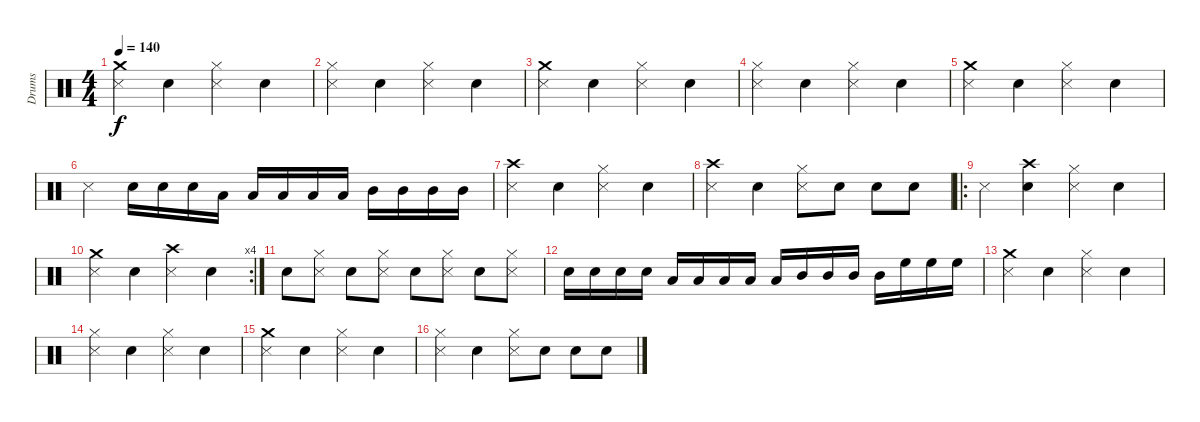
\track ("Drums" "Drums") {instrument percussion}
\staff {score}
\articulation defaults
\ts (4 4)
\tempo 140
\clef neutral
\ks c
("Crash medium (hit)" "Metronome (hit)").4{dy f} "Electric Snare (hit)".4 ("Hi-Hat (closed)" "Metronome (hit)").4 "Electric Snare (hit)".4 |
("Hi-Hat (closed)" "Metronome (hit)").4 "Electric Snare (hit)".4 ("Hi-Hat (closed)" "Metronome (hit)").4 "Electric Snare (hit)".4 |
("Crash medium (hit)" "Metronome (hit)").4 "Electric Snare (hit)".4 ("Hi-Hat (closed)" "Metronome (hit)").4 "Electric Snare (hit)".4 |
("Hi-Hat (closed)" "Metronome (hit)").4 "Electric Snare (hit)".4 ("Hi-Hat (closed)" "Metronome (hit)").4 "Electric Snare (hit)".4 |
("Crash medium (hit)" "Metronome (hit)").4 "Electric Snare (hit)".4 ("Hi-Hat (closed)" "Metronome (hit)").4 "Electric Snare (hit)".4 |
"Metronome (hit)".4 "Electric Snare (hit)".16 "Electric Snare (hit)".16 "Electric Snare (hit)".16 "Low Tom (hit)".16 "Low Tom (hit)".16 "Low Tom (hit)".16 "Low Tom (hit)".16 "Low Tom (hit)".16 "Mid Tom (hit)".16 "Mid Tom (hit)".16 "Mid Tom (hit)".16 "Mid Tom (hit)".16 |
("Crash high (hit)" "Metronome (hit)").4 "Electric Snare (hit)".4 ("Hi-Hat (closed)" "Metronome (hit)").4 "Electric Snare (hit)".4 |
("Crash high (hit)" "Metronome (hit)").4 "Electric Snare (hit)".4 ("Hi-Hat (closed)" "Metronome (hit)").8 "Electric Snare (hit)".8 "Electric Snare (hit)".8 "Electric Snare (hit)".8 |
\ro "Metronome (hit)".4
("Crash high (hit)" "Electric Snare (hit)").4 ("Hi-Hat (closed)" "Metronome (hit)").4 "Electric Snare (hit)".4 |
\rc 4
("Crash medium (hit)" "Metronome (hit)").4 "Electric Snare (hit)".4 ("Crash high (hit)" "Metronome (hit)").4 "Electric Snare (hit)".4 |
"Electric Snare (hit)".8 ("Hi-Hat (closed)" "Metronome (hit)").8 "Electric Snare (hit)".8 ("Hi-Hat (closed)" "Metronome (hit)").8 "Electric Snare (hit)".8 ("Hi-Hat (closed)" "Metronome (hit)").8 "Electric Snare (hit)".8 ("Hi-Hat (closed)" "Metronome (hit)").8 |
"Electric Snare (hit)".16 "Electric Snare (hit)".16 "Electric Snare (hit)".16 "Electric Snare (hit)".16 "Low Tom (hit)".16 "Low Tom (hit)".16 "Low Tom (hit)".16 "Low Tom (hit)".16 "Low Tom (hit)".16 "Mid Tom (hit)".16 "Mid Tom (hit)".16 "Mid Tom (hit)".16 "Mid Tom (hit)".16 "High Floor Tom (hit)".16 "High Floor Tom (hit)".16 "High Floor Tom (hit)".16 |
("Crash medium (hit)" "Metronome (hit)").4 "Electric Snare (hit)".4 ("Hi-Hat (closed)" "Metronome (hit)").4 "Electric Snare (hit)".4 |
("Hi-Hat (closed)" "Metronome (hit)").4 "Electric Snare (hit)".4 ("Hi-Hat (closed)" "Metronome (hit)").4 "Electric Snare (hit)".4 |
("Crash medium (hit)" "Metronome (hit)").4 "Electric Snare (hit)".4 ("Hi-Hat (closed)" "Metronome (hit)").4 "Electric Snare (hit)".4 |
("Hi-Hat (closed)" "Metronome (hit)").4 "Electric Snare (hit)".4 ("Hi-Hat (closed)" "Metronome (hit)").8 "Electric Snare (hit)".8 "Electric Snare (hit)".8 "Electric Snare (hit)".8
